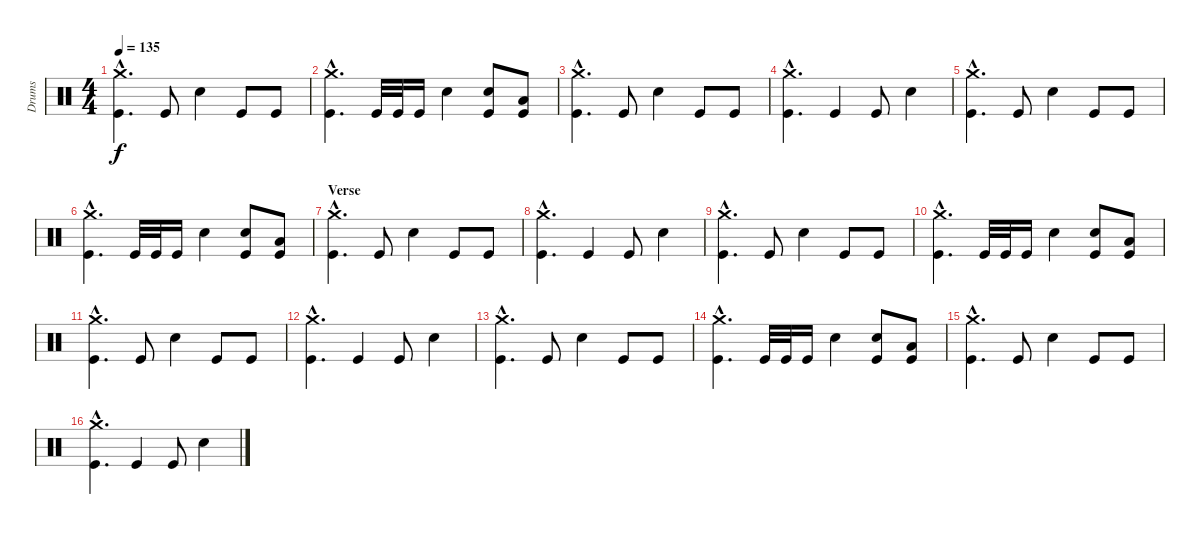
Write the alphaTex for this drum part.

\track ("Drums" "Drums") {instrument percussion}
\staff {score}
\articulation defaults
\ts (4 4)
\tempo 135
\clef neutral
\ks c
("Crash medium (hit)"{hac} "Kick (hit)"{hac}).4{d dy f} "Kick (hit)".8 "Snare (hit) 2".4 "Kick (hit)".8 "Kick (hit)".8 |
("Crash medium (hit)"{hac} "Kick (hit)"{hac}).4{d} "Kick (hit)".32 "Kick (hit)".32 "Kick (hit)".16 "Snare (hit) 2".4 ("Snare (hit) 2" "Kick (hit)").8 ("Low Tom (hit)" "Kick (hit)").8 |
("Crash medium (hit)"{hac} "Kick (hit)"{hac}).4{d} "Kick (hit)".8 "Snare (hit) 2".4 "Kick (hit)".8 "Kick (hit)".8 |
("Crash medium (hit)"{hac} "Kick (hit)"{hac}).4{d} "Kick (hit)".4 "Kick (hit)".8 "Snare (hit) 2".4 |
("Crash medium (hit)"{hac} "Kick (hit)"{hac}).4{d} "Kick (hit)".8 "Snare (hit) 2".4 "Kick (hit)".8 "Kick (hit)".8 |
("Crash medium (hit)"{hac} "Kick (hit)"{hac}).4{d} "Kick (hit)".32 "Kick (hit)".32 "Kick (hit)".16 "Snare (hit) 2".4 ("Snare (hit) 2" "Kick (hit)").8 ("Low Tom (hit)" "Kick (hit)").8 |
\section ("" "Verse")
("Crash medium (hit)"{hac} "Kick (hit)"{hac}).4{d} "Kick (hit)".8 "Snare (hit) 2".4 "Kick (hit)".8 "Kick (hit)".8 |
("Crash medium (hit)"{hac} "Kick (hit)"{hac}).4{d} "Kick (hit)".4 "Kick (hit)".8 "Snare (hit) 2".4 |
("Crash medium (hit)"{hac} "Kick (hit)"{hac}).4{d} "Kick (hit)".8 "Snare (hit) 2".4 "Kick (hit)".8 "Kick (hit)".8 |
("Crash medium (hit)"{hac} "Kick (hit)"{hac}).4{d} "Kick (hit)".32 "Kick (hit)".32 "Kick (hit)".16 "Snare (hit) 2".4 ("Snare (hit) 2" "Kick (hit)").8 ("Low Tom (hit)" "Kick (hit)").8 |
("Crash medium (hit)"{hac} "Kick (hit)"{hac}).4{d} "Kick (hit)".8 "Snare (hit) 2".4 "Kick (hit)".8 "Kick (hit)".8 |
("Crash medium (hit)"{hac} "Kick (hit)"{hac}).4{d} "Kick (hit)".4 "Kick (hit)".8 "Snare (hit) 2".4 |
("Crash medium (hit)"{hac} "Kick (hit)"{hac}).4{d} "Kick (hit)".8 "Snare (hit) 2".4 "Kick (hit)".8 "Kick (hit)".8 |
("Crash medium (hit)"{hac} "Kick (hit)"{hac}).4{d} "Kick (hit)".32 "Kick (hit)".32 "Kick (hit)".16 "Snare (hit) 2".4 ("Snare (hit) 2" "Kick (hit)").8 ("Low Tom (hit)" "Kick (hit)").8 |
("Crash medium (hit)"{hac} "Kick (hit)"{hac}).4{d} "Kick (hit)".8 "Snare (hit) 2".4 "Kick (hit)".8 "Kick (hit)".8 |
("Crash medium (hit)"{hac} "Kick (hit)"{hac}).4{d} "Kick (hit)".4 "Kick (hit)".8 "Snare (hit) 2".4
